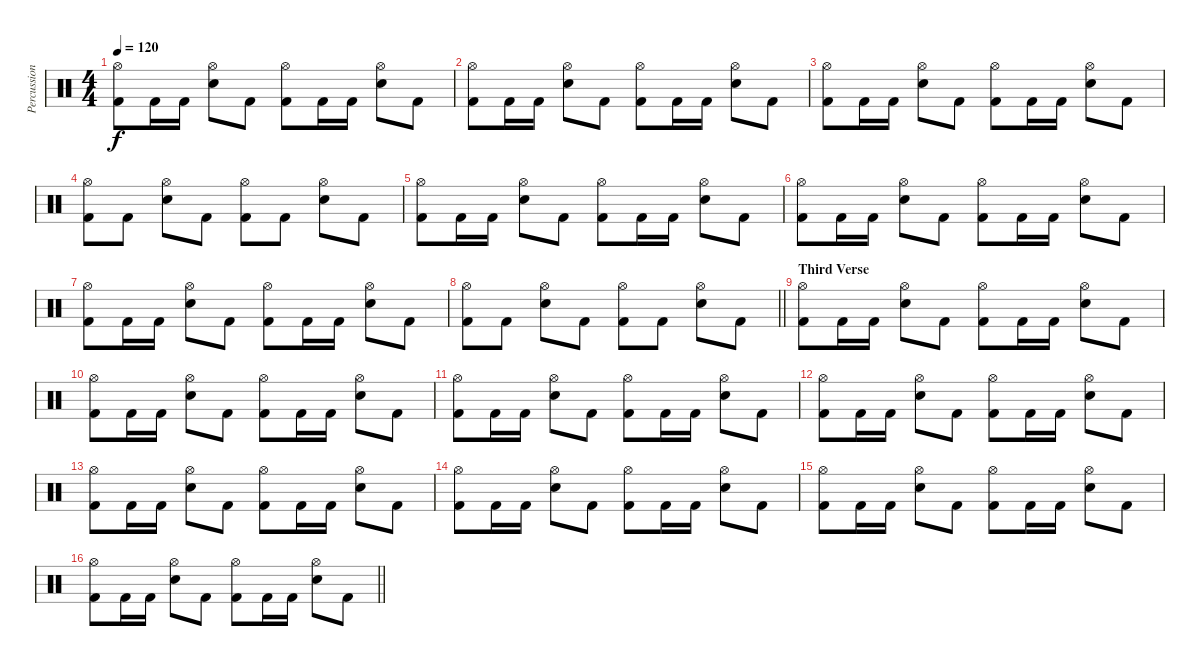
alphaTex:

\track ("Percussion" "Percussion") {instrument percussion}
\staff {score}
\articulation defaults
\ts (4 4)
\tempo 120
\clef neutral
\ks c
("Hi-Hat (open)" "Kick (hit) 2").8{dy f} "Kick (hit) 2".16 "Kick (hit) 2".16 ("Hi-Hat (open)" "Electric Snare (hit)").8 "Kick (hit) 2".8 ("Hi-Hat (open)" "Kick (hit) 2").8 "Kick (hit) 2".16 "Kick (hit) 2".16 ("Hi-Hat (open)" "Electric Snare (hit)").8 "Kick (hit) 2".8 |
("Hi-Hat (open)" "Kick (hit) 2").8 "Kick (hit) 2".16 "Kick (hit) 2".16 ("Hi-Hat (open)" "Electric Snare (hit)").8 "Kick (hit) 2".8 ("Hi-Hat (open)" "Kick (hit) 2").8 "Kick (hit) 2".16 "Kick (hit) 2".16 ("Hi-Hat (open)" "Electric Snare (hit)").8 "Kick (hit) 2".8 |
("Hi-Hat (open)" "Kick (hit) 2").8 "Kick (hit) 2".16 "Kick (hit) 2".16 ("Hi-Hat (open)" "Electric Snare (hit)").8 "Kick (hit) 2".8 ("Hi-Hat (open)" "Kick (hit) 2").8 "Kick (hit) 2".16 "Kick (hit) 2".16 ("Hi-Hat (open)" "Electric Snare (hit)").8 "Kick (hit) 2".8 |
("Hi-Hat (open)" "Kick (hit) 2").8 "Kick (hit) 2".8 ("Hi-Hat (open)" "Electric Snare (hit)").8 "Kick (hit) 2".8 ("Hi-Hat (open)" "Kick (hit) 2").8 "Kick (hit) 2".8 ("Hi-Hat (open)" "Electric Snare (hit)").8 "Kick (hit) 2".8 |
("Hi-Hat (open)" "Kick (hit) 2").8 "Kick (hit) 2".16 "Kick (hit) 2".16 ("Hi-Hat (open)" "Electric Snare (hit)").8 "Kick (hit) 2".8 ("Hi-Hat (open)" "Kick (hit) 2").8 "Kick (hit) 2".16 "Kick (hit) 2".16 ("Hi-Hat (open)" "Electric Snare (hit)").8 "Kick (hit) 2".8 |
("Hi-Hat (open)" "Kick (hit) 2").8 "Kick (hit) 2".16 "Kick (hit) 2".16 ("Hi-Hat (open)" "Electric Snare (hit)").8 "Kick (hit) 2".8 ("Hi-Hat (open)" "Kick (hit) 2").8 "Kick (hit) 2".16 "Kick (hit) 2".16 ("Hi-Hat (open)" "Electric Snare (hit)").8 "Kick (hit) 2".8 |
("Hi-Hat (open)" "Kick (hit) 2").8 "Kick (hit) 2".16 "Kick (hit) 2".16 ("Hi-Hat (open)" "Electric Snare (hit)").8 "Kick (hit) 2".8 ("Hi-Hat (open)" "Kick (hit) 2").8 "Kick (hit) 2".16 "Kick (hit) 2".16 ("Hi-Hat (open)" "Electric Snare (hit)").8 "Kick (hit) 2".8 |
\barLineRight lightlight
("Hi-Hat (open)" "Kick (hit) 2").8 "Kick (hit) 2".8 ("Hi-Hat (open)" "Electric Snare (hit)").8 "Kick (hit) 2".8 ("Hi-Hat (open)" "Kick (hit) 2").8 "Kick (hit) 2".8 ("Hi-Hat (open)" "Electric Snare (hit)").8 "Kick (hit) 2".8 |
\section ("" "Third Verse")
("Hi-Hat (open)" "Kick (hit) 2").8 "Kick (hit) 2".16 "Kick (hit) 2".16 ("Hi-Hat (open)" "Electric Snare (hit)").8 "Kick (hit) 2".8 ("Hi-Hat (open)" "Kick (hit) 2").8 "Kick (hit) 2".16 "Kick (hit) 2".16 ("Hi-Hat (open)" "Electric Snare (hit)").8 "Kick (hit) 2".8 |
("Hi-Hat (open)" "Kick (hit) 2").8 "Kick (hit) 2".16 "Kick (hit) 2".16 ("Hi-Hat (open)" "Electric Snare (hit)").8 "Kick (hit) 2".8 ("Hi-Hat (open)" "Kick (hit) 2").8 "Kick (hit) 2".16 "Kick (hit) 2".16 ("Hi-Hat (open)" "Electric Snare (hit)").8 "Kick (hit) 2".8 |
("Hi-Hat (open)" "Kick (hit) 2").8 "Kick (hit) 2".16 "Kick (hit) 2".16 ("Hi-Hat (open)" "Electric Snare (hit)").8 "Kick (hit) 2".8 ("Hi-Hat (open)" "Kick (hit) 2").8 "Kick (hit) 2".16 "Kick (hit) 2".16 ("Hi-Hat (open)" "Electric Snare (hit)").8 "Kick (hit) 2".8 |
("Hi-Hat (open)" "Kick (hit) 2").8 "Kick (hit) 2".16 "Kick (hit) 2".16 ("Hi-Hat (open)" "Electric Snare (hit)").8 "Kick (hit) 2".8 ("Hi-Hat (open)" "Kick (hit) 2").8 "Kick (hit) 2".16 "Kick (hit) 2".16 ("Hi-Hat (open)" "Electric Snare (hit)").8 "Kick (hit) 2".8 |
("Hi-Hat (open)" "Kick (hit) 2").8 "Kick (hit) 2".16 "Kick (hit) 2".16 ("Hi-Hat (open)" "Electric Snare (hit)").8 "Kick (hit) 2".8 ("Hi-Hat (open)" "Kick (hit) 2").8 "Kick (hit) 2".16 "Kick (hit) 2".16 ("Hi-Hat (open)" "Electric Snare (hit)").8 "Kick (hit) 2".8 |
("Hi-Hat (open)" "Kick (hit) 2").8 "Kick (hit) 2".16 "Kick (hit) 2".16 ("Hi-Hat (open)" "Electric Snare (hit)").8 "Kick (hit) 2".8 ("Hi-Hat (open)" "Kick (hit) 2").8 "Kick (hit) 2".16 "Kick (hit) 2".16 ("Hi-Hat (open)" "Electric Snare (hit)").8 "Kick (hit) 2".8 |
("Hi-Hat (open)" "Kick (hit) 2").8 "Kick (hit) 2".16 "Kick (hit) 2".16 ("Hi-Hat (open)" "Electric Snare (hit)").8 "Kick (hit) 2".8 ("Hi-Hat (open)" "Kick (hit) 2").8 "Kick (hit) 2".16 "Kick (hit) 2".16 ("Hi-Hat (open)" "Electric Snare (hit)").8 "Kick (hit) 2".8 |
\barLineRight lightlight
("Hi-Hat (open)" "Kick (hit) 2").8 "Kick (hit) 2".16 "Kick (hit) 2".16 ("Hi-Hat (open)" "Electric Snare (hit)").8 "Kick (hit) 2".8 ("Hi-Hat (open)" "Kick (hit) 2").8 "Kick (hit) 2".16 "Kick (hit) 2".16 ("Hi-Hat (open)" "Electric Snare (hit)").8 "Kick (hit) 2".8
